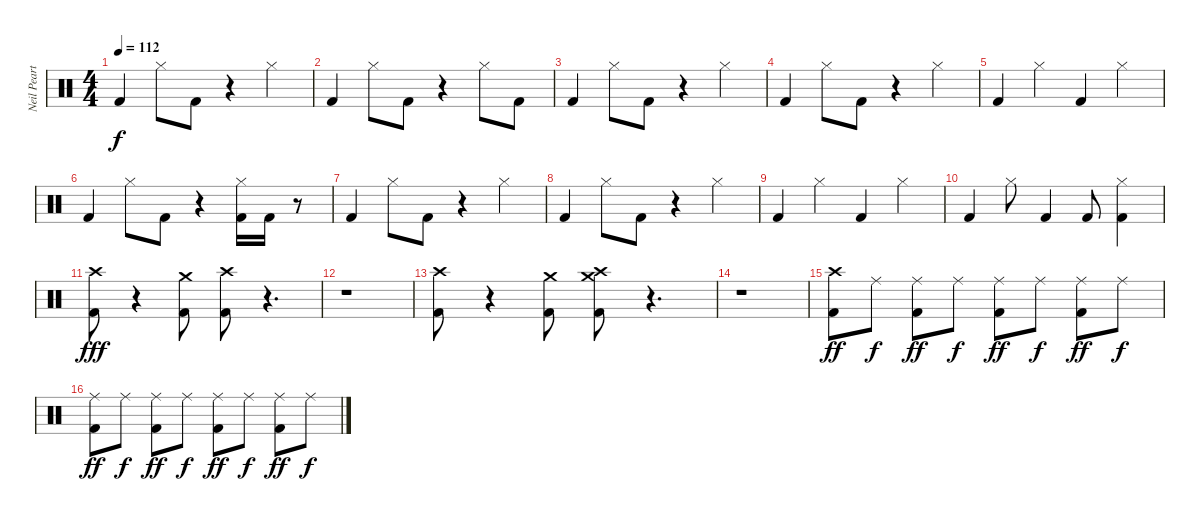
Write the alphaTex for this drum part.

\track ("Neil Peart" "Neil Peart") {instrument percussion}
\staff {score}
\articulation defaults
\ts (4 4)
\tempo 112
\clef neutral
\ks c "Kick (hit) 2".4{dy f} "Hi-Hat (closed)".8 "Kick (hit) 2".8
r.4 "Hi-Hat (closed)".4 |
"Kick (hit) 2".4 "Hi-Hat (closed)".8 "Kick (hit) 2".8 r.4 "Hi-Hat (closed)".8 "Kick (hit) 2".8 |
"Kick (hit) 2".4 "Hi-Hat (closed)".8 "Kick (hit) 2".8 r.4 "Hi-Hat (closed)".4 |
"Kick (hit) 2".4 "Hi-Hat (closed)".8 "Kick (hit) 2".8 r.4 "Hi-Hat (closed)".4 |
"Kick (hit) 2".4 "Hi-Hat (closed)".4 "Kick (hit) 2".4 "Hi-Hat (closed)".4 |
"Kick (hit) 2".4 "Hi-Hat (closed)".8 "Kick (hit) 2".8 r.4 ("Kick (hit) 2" "Hi-Hat (closed)").16 "Kick (hit) 2".16 r.8 |
"Kick (hit) 2".4 "Hi-Hat (closed)".8 "Kick (hit) 2".8 r.4 "Hi-Hat (closed)".4 |
"Kick (hit) 2".4 "Hi-Hat (closed)".8 "Kick (hit) 2".8 r.4 "Hi-Hat (closed)".4 |
"Kick (hit) 2".4 "Hi-Hat (closed)".4 "Kick (hit) 2".4 "Hi-Hat (closed)".4 |
"Kick (hit) 2".4 "Hi-Hat (closed)".8 "Kick (hit) 2".4 "Kick (hit) 2".8 ("Kick (hit) 2" "Hi-Hat (closed)").4 |
("Crash high (hit)" "Kick (hit) 2").8{dy fff} r.4 ("Crash medium (hit)" "Kick (hit) 2").8 ("Crash high (hit)" "Kick (hit) 2").8 r.4{d} |
r.1 |
("Crash high (hit)" "Kick (hit) 2").8 r.4 ("Crash medium (hit)" "Kick (hit) 2").8 ("Crash medium (hit)" "Crash high (hit)" "Kick (hit) 2").8 r.4{d} |
r.1 |
("Crash high (hit)" "Kick (hit) 2").8{dy ff} "Ride (middle)".8{dy f} ("Kick (hit) 2" "Ride (middle)").8{dy ff} "Ride (middle)".8{dy f} ("Kick (hit) 2" "Ride (middle)").8{dy ff} "Ride (middle)".8{dy f} ("Kick (hit) 2" "Ride (middle)").8{dy ff} "Ride (middle)".8{dy f} |
("Kick (hit) 2" "Ride (middle)").8{dy ff} "Ride (middle)".8{dy f} ("Kick (hit) 2" "Ride (middle)").8{dy ff} "Ride (middle)".8{dy f} ("Kick (hit) 2" "Ride (middle)").8{dy ff} "Ride (middle)".8{dy f} ("Kick (hit) 2" "Ride (middle)").8{dy ff} "Ride (middle)".8{dy f}
